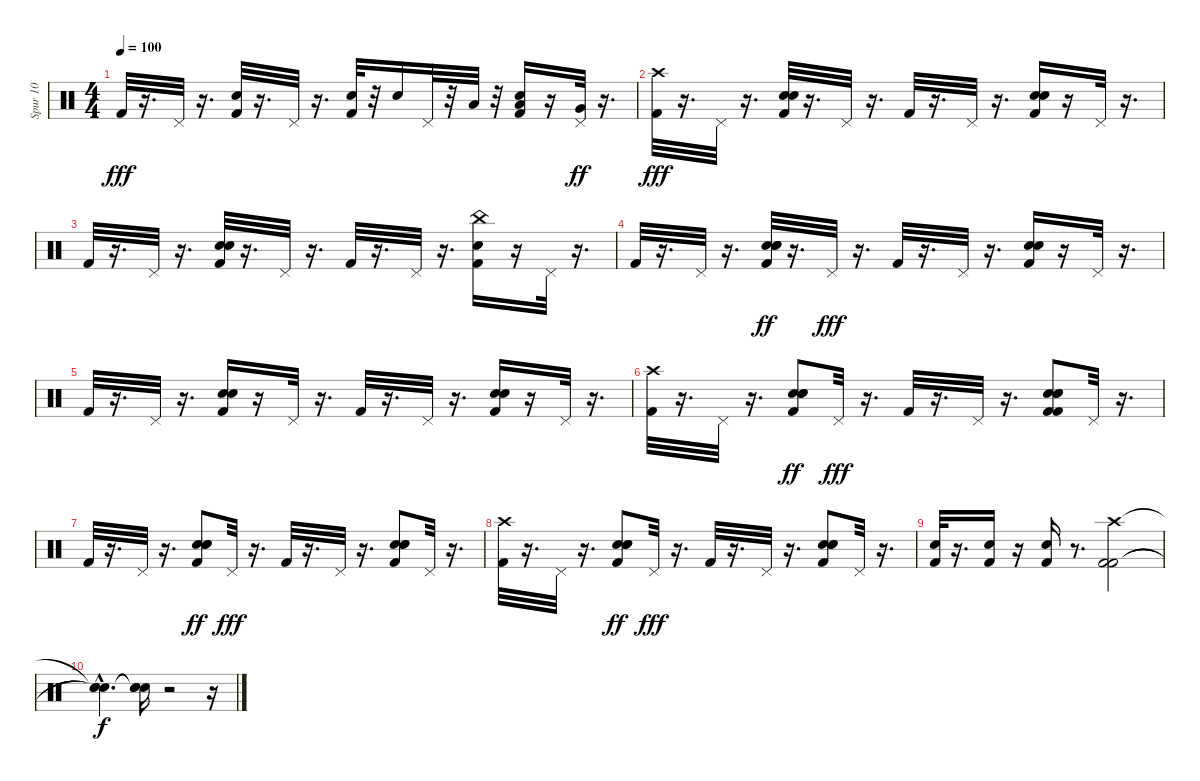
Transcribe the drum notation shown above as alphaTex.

\track ("Spur 10" "Spur 10") {instrument percussion}
\staff {score}
\articulation defaults
\ts (4 4)
\tempo 100
\clef neutral
\ks c "Kick (hit) 2".32{dy fff}
r.16{d} "Pedal Hi-Hat (hit)".32 r.16{d} ("Electric Snare (hit)" "Kick (hit) 2").32 r.16{d} "Pedal Hi-Hat (hit)".32 r.16{d} ("Kick (hit) 2" "Electric Snare (hit)").32 r.32 "Electric Snare (hit)".16 "Pedal Hi-Hat (hit)".32 r.32 "Low Floor Tom (hit)".32 r.32 ("Electric Snare (hit)" "Kick (hit) 2" "Low Floor Tom (hit)").16 r.16 ("Pedal Hi-Hat (hit)" "Very Low Tom (hit)").32{dy ff} r.16{d} |
("Kick (hit) 2" "Crash high (hit)").32{dy fff} r.16{d} "Pedal Hi-Hat (hit)".32 r.16{d} ("Electric Snare (hit)" "Kick (hit) 2" "Snare (hit) 2").32 r.16{d} "Pedal Hi-Hat (hit)".32 r.16{d} "Kick (hit) 2".32 r.16{d} "Pedal Hi-Hat (hit)".32 r.16{d} ("Electric Snare (hit)" "Kick (hit) 2" "Snare (hit) 2").16 r.16 "Pedal Hi-Hat (hit)".32 r.16{d} |
"Kick (hit) 2".32 r.16{d} "Pedal Hi-Hat (hit)".32 r.16{d} ("Electric Snare (hit)" "Kick (hit) 2" "Snare (hit) 2").32 r.16{d} "Pedal Hi-Hat (hit)".32 r.16{d} "Kick (hit) 2".32 r.16{d} "Pedal Hi-Hat (hit)".32 r.16{d} ("Electric Snare (hit)" "Kick (hit) 2" "China (hit)").16 r.16 "Pedal Hi-Hat (hit)".32 r.16{d} |
"Kick (hit) 2".32 r.16{d} "Pedal Hi-Hat (hit)".32 r.16{d} ("Electric Snare (hit)" "Kick (hit) 2" "Snare (hit) 2" "Electric Snare (hit)").32{dy ff} r.16{d} "Pedal Hi-Hat (hit)".32{dy fff} r.16{d} "Kick (hit) 2".32 r.16{d} "Pedal Hi-Hat (hit)".32 r.16{d} ("Electric Snare (hit)" "Kick (hit) 2" "Snare (hit) 2").16 r.16 "Pedal Hi-Hat (hit)".32 r.16{d} |
"Kick (hit) 2".32 r.16{d} "Pedal Hi-Hat (hit)".32 r.16{d} ("Electric Snare (hit)" "Kick (hit) 2" "Snare (hit) 2").16 r.16 "Pedal Hi-Hat (hit)".32 r.16{d} "Kick (hit) 2".32 r.16{d} "Pedal Hi-Hat (hit)".32 r.16{d} ("Electric Snare (hit)" "Kick (hit) 2" "Snare (hit) 2").16 r.16 "Pedal Hi-Hat (hit)".32 r.16{d} |
("Kick (hit) 2" "Crash high (hit)").32 r.16{d} "Pedal Hi-Hat (hit)".32 r.16{d} ("Electric Snare (hit)" "Electric Snare (hit)" "Kick (hit) 2" "Snare (hit) 2").8{dy ff} "Pedal Hi-Hat (hit)".32{dy fff} r.16{d} "Kick (hit) 2".32 r.16{d} "Pedal Hi-Hat (hit)".32 r.16{d} ("Electric Snare (hit)" "Kick (hit) 2" "Snare (hit) 2" "Electric Snare (hit)" "Kick (hit) 2").8 "Pedal Hi-Hat (hit)".32 r.16{d} |
"Kick (hit) 2".32 r.16{d} "Pedal Hi-Hat (hit)".32 r.16{d} ("Electric Snare (hit)" "Kick (hit) 2" "Electric Snare (hit)" "Snare (hit) 2").8{dy ff} "Pedal Hi-Hat (hit)".32{dy fff} r.16{d} "Kick (hit) 2".32 r.16{d} "Pedal Hi-Hat (hit)".32 r.16{d} ("Electric Snare (hit)" "Snare (hit) 2" "Electric Snare (hit)" "Kick (hit) 2").8 "Pedal Hi-Hat (hit)".32 r.16{d} |
("Crash high (hit)" "Kick (hit) 2").32 r.16{d} "Pedal Hi-Hat (hit)".32 r.16{d} ("Electric Snare (hit)" "Electric Snare (hit)" "Kick (hit) 2" "Snare (hit) 2").8{dy ff} "Pedal Hi-Hat (hit)".32{dy fff} r.16{d} "Kick (hit) 2".32 r.16{d} "Pedal Hi-Hat (hit)".32 r.16{d} ("Electric Snare (hit)" "Snare (hit) 2" "Electric Snare (hit)" "Kick (hit) 2").8 "Pedal Hi-Hat (hit)".32 r.16{d} |
("Kick (hit) 2" "Electric Snare (hit)").32 r.16{d} ("Kick (hit) 2" "Electric Snare (hit)").16 r.16 ("Kick (hit) 2" "Electric Snare (hit)").16 r.8{d} ("Crash high (hit)" "Kick (hit) 2" "Kick (hit) 2").2 |
("Snare (hit)"{hac t} "Snare (hit)"{hac t} "Snare (hit)"{hac t}).4{d dy f} ("Snare (hit)"{t} "Snare (hit)"{t} "Snare (hit)"{t}).16 r.2 r.16
